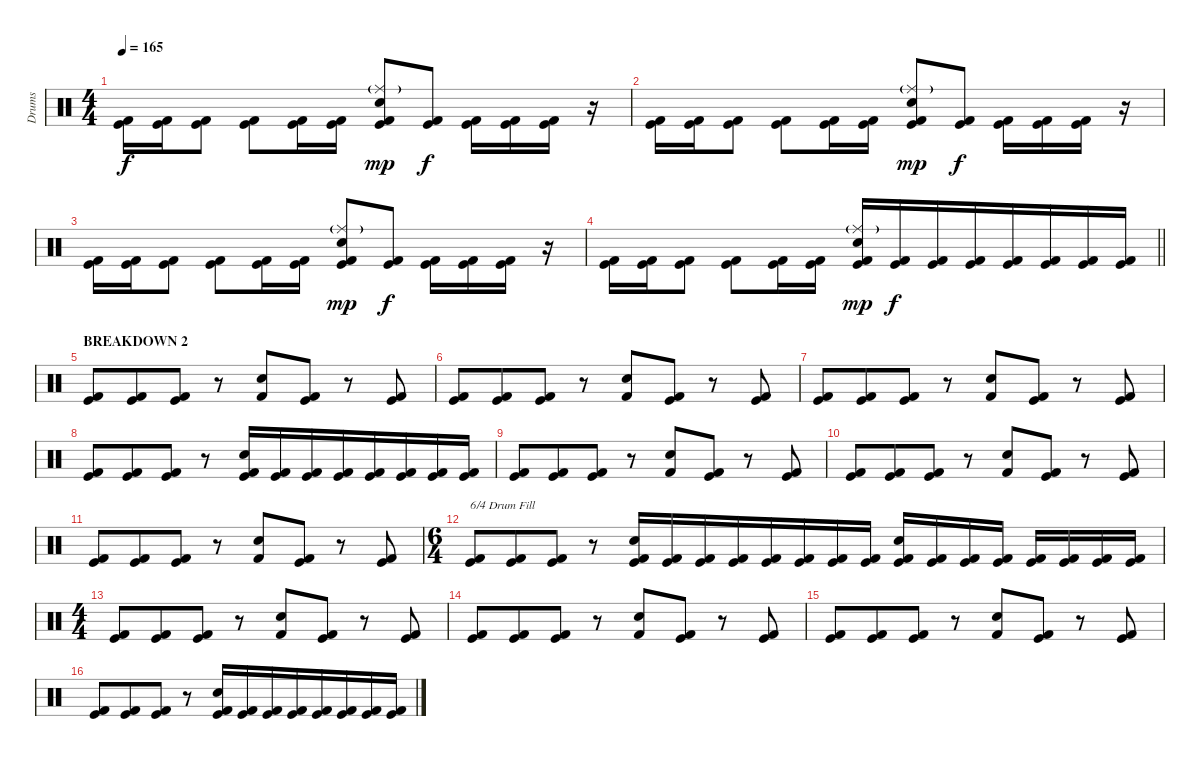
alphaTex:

\track ("Drums" "Drums") {instrument percussion}
\staff {score}
\articulation defaults
\ts (4 4)
\tempo 165
\clef neutral
\ks c
("Kick (hit)" "Kick (hit) 2").16{dy f beam Down} ("Kick (hit)" "Kick (hit) 2").16{beam Down} ("Kick (hit)" "Kick (hit) 2").8{beam Down} ("Kick (hit)" "Kick (hit) 2").8{beam Down} ("Kick (hit)" "Kick (hit) 2").16{beam Down} ("Kick (hit)" "Kick (hit) 2").16{beam Down} ("Ride (middle)"{g} "Snare (hit) 2" "Kick (hit)" "Kick (hit) 2").8{dy mp beam merge} ("Kick (hit)" "Kick (hit) 2").8{dy f} ("Kick (hit)" "Kick (hit) 2").16{beam Down beam merge} ("Kick (hit)" "Kick (hit) 2").16{beam Down} ("Kick (hit)" "Kick (hit) 2").16{beam Down} r.16 |
("Kick (hit)" "Kick (hit) 2").16{beam Down} ("Kick (hit)" "Kick (hit) 2").16{beam Down} ("Kick (hit)" "Kick (hit) 2").8{beam Down} ("Kick (hit)" "Kick (hit) 2").8{beam Down} ("Kick (hit)" "Kick (hit) 2").16{beam Down} ("Kick (hit)" "Kick (hit) 2").16{beam Down} ("Ride (middle)"{g} "Snare (hit) 2" "Kick (hit)" "Kick (hit) 2").8{dy mp beam merge} ("Kick (hit)" "Kick (hit) 2").8{dy f} ("Kick (hit)" "Kick (hit) 2").16{beam Down beam merge} ("Kick (hit)" "Kick (hit) 2").16{beam Down} ("Kick (hit)" "Kick (hit) 2").16{beam Down} r.16 |
("Kick (hit)" "Kick (hit) 2").16{beam Down} ("Kick (hit)" "Kick (hit) 2").16{beam Down} ("Kick (hit)" "Kick (hit) 2").8{beam Down} ("Kick (hit)" "Kick (hit) 2").8{beam Down} ("Kick (hit)" "Kick (hit) 2").16{beam Down} ("Kick (hit)" "Kick (hit) 2").16{beam Down} ("Ride (middle)"{g} "Snare (hit) 2" "Kick (hit)" "Kick (hit) 2").8{dy mp beam merge} ("Kick (hit)" "Kick (hit) 2").8{dy f} ("Kick (hit)" "Kick (hit) 2").16{beam Down beam merge} ("Kick (hit)" "Kick (hit) 2").16{beam Down} ("Kick (hit)" "Kick (hit) 2").16{beam Down} r.16 |
\barLineRight lightlight
("Kick (hit)" "Kick (hit) 2").16{beam Down} ("Kick (hit)" "Kick (hit) 2").16{beam Down} ("Kick (hit)" "Kick (hit) 2").8{beam Down} ("Kick (hit)" "Kick (hit) 2").8{beam Down} ("Kick (hit)" "Kick (hit) 2").16{beam Down} ("Kick (hit)" "Kick (hit) 2").16{beam Down} ("Ride (middle)"{g} "Snare (hit) 2" "Kick (hit)" "Kick (hit) 2").16{dy mp beam merge} ("Kick (hit)" "Kick (hit) 2").16{dy f} ("Kick (hit)" "Kick (hit) 2").16{beam merge} ("Kick (hit)" "Kick (hit) 2").16{beam merge} ("Kick (hit)" "Kick (hit) 2").16 ("Kick (hit)" "Kick (hit) 2").16 ("Kick (hit)" "Kick (hit) 2").16 ("Kick (hit)" "Kick (hit) 2").16 |
\section ("" "BREAKDOWN 2")
("Kick (hit)" "Kick (hit) 2").8 ("Kick (hit)" "Kick (hit) 2").8{beam merge} ("Kick (hit)" "Kick (hit) 2").8 r.8 ("Snare (hit) 2" "Kick (hit) 2").8 ("Kick (hit)" "Kick (hit) 2").8 r.8 ("Kick (hit)" "Kick (hit) 2").8 |
("Kick (hit)" "Kick (hit) 2").8 ("Kick (hit)" "Kick (hit) 2").8{beam merge} ("Kick (hit)" "Kick (hit) 2").8 r.8 ("Snare (hit) 2" "Kick (hit) 2").8 ("Kick (hit)" "Kick (hit) 2").8 r.8 ("Kick (hit)" "Kick (hit) 2").8 |
("Kick (hit)" "Kick (hit) 2").8 ("Kick (hit)" "Kick (hit) 2").8{beam merge} ("Kick (hit)" "Kick (hit) 2").8 r.8 ("Snare (hit) 2" "Kick (hit) 2").8 ("Kick (hit)" "Kick (hit) 2").8 r.8 ("Kick (hit)" "Kick (hit) 2").8 |
("Kick (hit)" "Kick (hit) 2").8 ("Kick (hit)" "Kick (hit) 2").8{beam merge} ("Kick (hit)" "Kick (hit) 2").8 r.8 ("Snare (hit) 2" "Kick (hit)" "Kick (hit) 2").16 ("Kick (hit)" "Kick (hit) 2").16 ("Kick (hit)" "Kick (hit) 2").16 ("Kick (hit)" "Kick (hit) 2").16{beam merge} ("Kick (hit)" "Kick (hit) 2").16 ("Kick (hit)" "Kick (hit) 2").16 ("Kick (hit)" "Kick (hit) 2").16 ("Kick (hit)" "Kick (hit) 2").16 |
("Kick (hit)" "Kick (hit) 2").8 ("Kick (hit)" "Kick (hit) 2").8{beam merge} ("Kick (hit)" "Kick (hit) 2").8 r.8 ("Snare (hit) 2" "Kick (hit) 2").8 ("Kick (hit)" "Kick (hit) 2").8 r.8 ("Kick (hit)" "Kick (hit) 2").8 |
("Kick (hit)" "Kick (hit) 2").8 ("Kick (hit)" "Kick (hit) 2").8{beam merge} ("Kick (hit)" "Kick (hit) 2").8 r.8 ("Snare (hit) 2" "Kick (hit) 2").8 ("Kick (hit)" "Kick (hit) 2").8 r.8 ("Kick (hit)" "Kick (hit) 2").8 |
("Kick (hit)" "Kick (hit) 2").8 ("Kick (hit)" "Kick (hit) 2").8{beam merge} ("Kick (hit)" "Kick (hit) 2").8 r.8 ("Snare (hit) 2" "Kick (hit) 2").8 ("Kick (hit)" "Kick (hit) 2").8 r.8 ("Kick (hit)" "Kick (hit) 2").8 |
\ts (6 4)
("Kick (hit)" "Kick (hit) 2").8{txt "6/4 Drum Fill"} ("Kick (hit)" "Kick (hit) 2").8{beam merge} ("Kick (hit)" "Kick (hit) 2").8 r.8 ("Snare (hit) 2" "Kick (hit)" "Kick (hit) 2").16 ("Kick (hit)" "Kick (hit) 2").16 ("Kick (hit)" "Kick (hit) 2").16 ("Kick (hit)" "Kick (hit) 2").16{beam merge} ("Kick (hit)" "Kick (hit) 2").16 ("Kick (hit)" "Kick (hit) 2").16 ("Kick (hit)" "Kick (hit) 2").16 ("Kick (hit)" "Kick (hit) 2").16 ("Snare (hit) 2" "Kick (hit)" "Kick (hit) 2").16 ("Kick (hit)" "Kick (hit) 2").16 ("Kick (hit)" "Kick (hit) 2").16 ("Kick (hit)" "Kick (hit) 2").16 ("Kick (hit)" "Kick (hit) 2").16 ("Kick (hit)" "Kick (hit) 2").16 ("Kick (hit)" "Kick (hit) 2").16 ("Kick (hit)" "Kick (hit) 2").16 |
\ts (4 4)
("Kick (hit)" "Kick (hit) 2").8 ("Kick (hit)" "Kick (hit) 2").8{beam merge} ("Kick (hit)" "Kick (hit) 2").8 r.8 ("Snare (hit) 2" "Kick (hit) 2").8 ("Kick (hit)" "Kick (hit) 2").8 r.8 ("Kick (hit)" "Kick (hit) 2").8 |
("Kick (hit)" "Kick (hit) 2").8 ("Kick (hit)" "Kick (hit) 2").8{beam merge} ("Kick (hit)" "Kick (hit) 2").8 r.8 ("Snare (hit) 2" "Kick (hit) 2").8 ("Kick (hit)" "Kick (hit) 2").8 r.8 ("Kick (hit)" "Kick (hit) 2").8 |
("Kick (hit)" "Kick (hit) 2").8 ("Kick (hit)" "Kick (hit) 2").8{beam merge} ("Kick (hit)" "Kick (hit) 2").8 r.8 ("Snare (hit) 2" "Kick (hit) 2").8 ("Kick (hit)" "Kick (hit) 2").8 r.8 ("Kick (hit)" "Kick (hit) 2").8 |
("Kick (hit)" "Kick (hit) 2").8 ("Kick (hit)" "Kick (hit) 2").8{beam merge} ("Kick (hit)" "Kick (hit) 2").8 r.8 ("Snare (hit) 2" "Kick (hit)" "Kick (hit) 2").16 ("Kick (hit)" "Kick (hit) 2").16 ("Kick (hit)" "Kick (hit) 2").16 ("Kick (hit)" "Kick (hit) 2").16{beam merge} ("Kick (hit)" "Kick (hit) 2").16 ("Kick (hit)" "Kick (hit) 2").16 ("Kick (hit)" "Kick (hit) 2").16 ("Kick (hit)" "Kick (hit) 2").16
